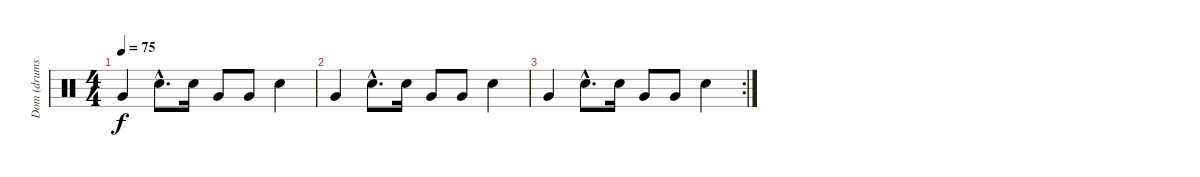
\track ("Dom (drums)" "Dom (drums") {instrument percussion}
\staff {score}
\articulation defaults
\ts (4 4)
\tempo 75
\clef neutral
\ks c "Very Low Tom (hit)".4{dy f} "Snare (hit) 2"{hac}.8{d} "Snare (hit) 2".16 "Very Low Tom (hit)".8 "Very Low Tom (hit)".8 "Snare (hit) 2".4
|
"Very Low Tom (hit)".4 "Snare (hit) 2"{hac}.8{d} "Snare (hit) 2".16 "Very Low Tom (hit)".8 "Very Low Tom (hit)".8 "Snare (hit) 2".4 |
\rc 2 "Very Low Tom (hit)".4 "Snare (hit) 2"{hac}.8{d} "Snare (hit) 2".16 "Very Low Tom (hit)".8 "Very Low Tom (hit)".8 "Snare (hit) 2".4
